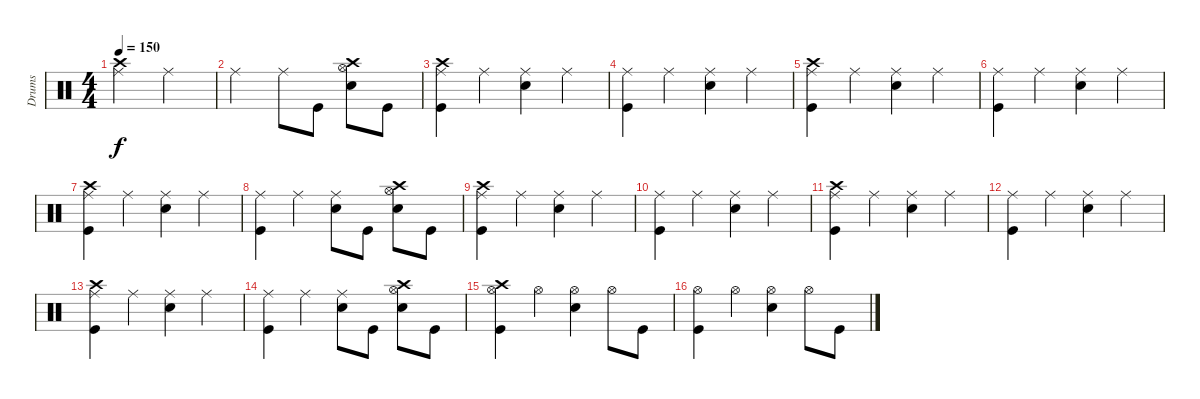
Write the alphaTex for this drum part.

\track ("Drums" "Drums") {instrument percussion}
\staff {score}
\articulation defaults
\ts (4 4)
\tempo 150
\clef neutral
\ks c
("Crash high (hit)" "Ride (middle)").2{dy f} "Ride (middle)".2 |
"Ride (middle)".2 "Ride (middle)".8 "Kick (hit)".8 ("Hi-Hat (open)" "Crash high (hit)" "Electric Snare (hit)").8 "Kick (hit)".8 |
("Crash high (hit)" "Ride (middle)" "Kick (hit)").4 "Ride (middle)".4 ("Ride (middle)" "Electric Snare (hit)").4 "Ride (middle)".4 |
("Ride (middle)" "Kick (hit)").4 "Ride (middle)".4 ("Ride (middle)" "Electric Snare (hit)").4 "Ride (middle)".4 |
("Crash high (hit)" "Ride (middle)" "Kick (hit)").4 "Ride (middle)".4 ("Ride (middle)" "Electric Snare (hit)").4 "Ride (middle)".4 |
("Ride (middle)" "Kick (hit)").4 "Ride (middle)".4 ("Ride (middle)" "Electric Snare (hit)").4 "Ride (middle)".4 |
("Crash high (hit)" "Ride (middle)" "Kick (hit)").4 "Ride (middle)".4 ("Ride (middle)" "Electric Snare (hit)").4 "Ride (middle)".4 |
("Ride (middle)" "Kick (hit)").4 "Ride (middle)".4 ("Ride (middle)" "Electric Snare (hit)").8 "Kick (hit)".8 ("Crash high (hit)" "Hi-Hat (open)" "Electric Snare (hit)").8 "Kick (hit)".8 |
("Crash high (hit)" "Ride (middle)" "Kick (hit)").4 "Ride (middle)".4 ("Ride (middle)" "Electric Snare (hit)").4 "Ride (middle)".4 |
("Ride (middle)" "Kick (hit)").4 "Ride (middle)".4 ("Ride (middle)" "Electric Snare (hit)").4 "Ride (middle)".4 |
("Crash high (hit)" "Ride (middle)" "Kick (hit)").4 "Ride (middle)".4 ("Ride (middle)" "Electric Snare (hit)").4 "Ride (middle)".4 |
("Ride (middle)" "Kick (hit)").4 "Ride (middle)".4 ("Ride (middle)" "Electric Snare (hit)").4 "Ride (middle)".4 |
("Crash high (hit)" "Ride (middle)" "Kick (hit)").4 "Ride (middle)".4 ("Ride (middle)" "Electric Snare (hit)").4 "Ride (middle)".4 |
("Ride (middle)" "Kick (hit)").4 "Ride (middle)".4 ("Ride (middle)" "Electric Snare (hit)").8 "Kick (hit)".8 ("Crash high (hit)" "Hi-Hat (open)" "Electric Snare (hit)").8 "Kick (hit)".8 |
("Crash high (hit)" "Hi-Hat (open)" "Kick (hit)").4 "Hi-Hat (open)".4 ("Hi-Hat (open)" "Electric Snare (hit)").4 "Hi-Hat (open)".8 "Kick (hit)".8 |
("Hi-Hat (open)" "Kick (hit)").4 "Hi-Hat (open)".4 ("Hi-Hat (open)" "Electric Snare (hit)").4 "Hi-Hat (open)".8 "Kick (hit)".8
